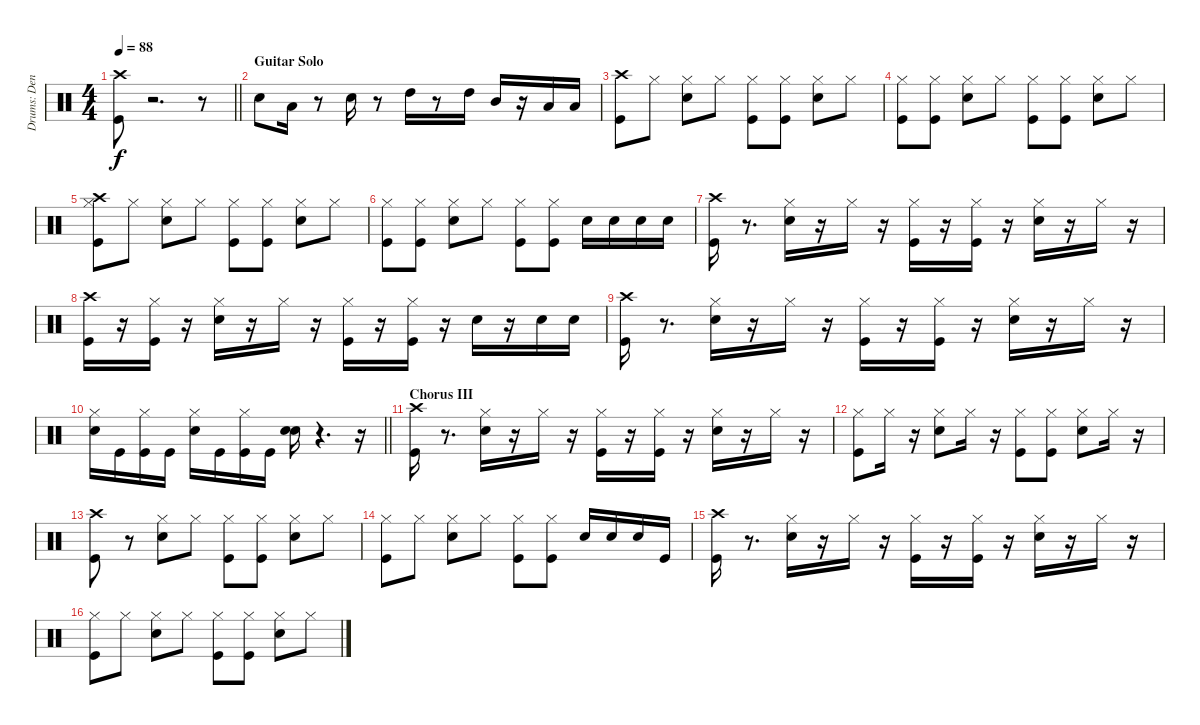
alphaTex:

\track ("Drums: Denny Carmassi" "Drums: Den") {instrument percussion}
\staff {score}
\articulation defaults
\ts (4 4)
\tempo 88
\clef neutral
\barLineRight lightlight
\ks c
("Crash high (hit)" "Kick (hit)").8{dy f} r.2{d} r.8 |
\section ("" "Guitar Solo")
"Electric Snare (hit)".8 "Low Tom (hit)".16 r.8 "Electric Snare (hit)".16 r.8 "High Tom (hit)".16 r.8 "High Tom (hit)".16 "Mid Tom (hit)".16 r.16 "Low Tom (hit)".16 "Low Tom (hit)".16 |
("Kick (hit)" "Crash high (hit)").8 "Hi-Hat (closed)".8 ("Electric Snare (hit)" "Hi-Hat (closed)").8 "Hi-Hat (closed)".8 ("Kick (hit)" "Hi-Hat (closed)").8 ("Kick (hit)" "Hi-Hat (closed)").8 ("Electric Snare (hit)" "Hi-Hat (closed)").8 "Hi-Hat (closed)".8 |
("Kick (hit)" "Hi-Hat (closed)").8 ("Kick (hit)" "Hi-Hat (closed)").8 ("Electric Snare (hit)" "Hi-Hat (closed)").8 "Hi-Hat (closed)".8 ("Kick (hit)" "Hi-Hat (closed)").8 ("Kick (hit)" "Hi-Hat (closed)").8 ("Electric Snare (hit)" "Hi-Hat (closed)").8 "Hi-Hat (closed)".8 |
("Hi-Hat (closed)" "Crash high (hit)" "Kick (hit)").8 "Hi-Hat (closed)".8 ("Hi-Hat (closed)" "Electric Snare (hit)").8 "Hi-Hat (closed)".8 ("Hi-Hat (closed)" "Kick (hit)").8 ("Hi-Hat (closed)" "Kick (hit)").8 ("Hi-Hat (closed)" "Electric Snare (hit)").8 "Hi-Hat (closed)".8 |
("Hi-Hat (closed)" "Kick (hit)").8 ("Hi-Hat (closed)" "Kick (hit)").8 ("Hi-Hat (closed)" "Electric Snare (hit)").8 "Hi-Hat (closed)".8 ("Hi-Hat (closed)" "Kick (hit)").8 ("Hi-Hat (closed)" "Kick (hit)").8 "Electric Snare (hit)".16 "Electric Snare (hit)".16 "Electric Snare (hit)".16 "Electric Snare (hit)".16 |
("Crash high (hit)" "Kick (hit)").16 r.8{d} ("Hi-Hat (closed)" "Electric Snare (hit)").16 r.16 "Hi-Hat (closed)".16 r.16 ("Hi-Hat (closed)" "Kick (hit)").16 r.16 ("Hi-Hat (closed)" "Kick (hit)").16 r.16 ("Hi-Hat (closed)" "Electric Snare (hit)").16 r.16 "Hi-Hat (closed)".16 r.16 |
("Crash high (hit)" "Kick (hit)").16 r.16 ("Hi-Hat (closed)" "Kick (hit)").16 r.16 ("Hi-Hat (closed)" "Electric Snare (hit)").16 r.16 "Hi-Hat (closed)".16 r.16 ("Hi-Hat (closed)" "Kick (hit)").16 r.16 ("Hi-Hat (closed)" "Kick (hit)").16 r.16 "Electric Snare (hit)".16 r.16 "Electric Snare (hit)".16 "Electric Snare (hit)".16 |
("Kick (hit)" "Crash high (hit)").16 r.8{d} ("Electric Snare (hit)" "Hi-Hat (closed)").16 r.16 "Hi-Hat (closed)".16 r.16 ("Kick (hit)" "Hi-Hat (closed)").16 r.16 ("Kick (hit)" "Hi-Hat (closed)").16 r.16 ("Electric Snare (hit)" "Hi-Hat (closed)").16 r.16 "Hi-Hat (closed)".16 r.16 |
\barLineRight lightlight
("Hi-Hat (closed)" "Electric Snare (hit)").16 "Kick (hit)".16 ("Hi-Hat (closed)" "Kick (hit)").16 "Kick (hit)".16 ("Hi-Hat (closed)" "Electric Snare (hit)").16 "Kick (hit)".16 ("Hi-Hat (closed)" "Kick (hit)").16 "Kick (hit)".16 ("Snare (hit) 2" "Electric Snare (hit)").16 r.4{d} r.16 |
\section ("" "Chorus III")
("Kick (hit)" "Crash high (hit)").16 r.8{d} ("Electric Snare (hit)" "Hi-Hat (closed)").16 r.16 "Hi-Hat (closed)".16 r.16 ("Kick (hit)" "Hi-Hat (closed)").16 r.16 ("Kick (hit)" "Hi-Hat (closed)").16 r.16 ("Electric Snare (hit)" "Hi-Hat (closed)").16 r.16 "Hi-Hat (closed)".16 r.16 |
("Hi-Hat (closed)" "Kick (hit)").8 "Hi-Hat (closed)".16 r.16 ("Hi-Hat (closed)" "Electric Snare (hit)").8 "Hi-Hat (closed)".16 r.16 ("Hi-Hat (closed)" "Kick (hit)").8 ("Hi-Hat (closed)" "Kick (hit)").8 ("Hi-Hat (closed)" "Electric Snare (hit)").8 "Hi-Hat (closed)".16 r.16 |
("Crash high (hit)" "Kick (hit)").8 r.8 ("Hi-Hat (closed)" "Electric Snare (hit)").8 "Hi-Hat (closed)".8 ("Hi-Hat (closed)" "Kick (hit)").8 ("Hi-Hat (closed)" "Kick (hit)").8 ("Hi-Hat (closed)" "Electric Snare (hit)").8 "Hi-Hat (closed)".8 |
("Hi-Hat (closed)" "Kick (hit)").8 "Hi-Hat (closed)".8 ("Hi-Hat (closed)" "Electric Snare (hit)").8 "Hi-Hat (closed)".8 ("Hi-Hat (closed)" "Kick (hit)").8 ("Hi-Hat (closed)" "Kick (hit)").8 "Electric Snare (hit)".16 "Electric Snare (hit)".16 "Electric Snare (hit)".16 "Kick (hit)".16 |
("Crash high (hit)" "Kick (hit)").16 r.8{d} ("Hi-Hat (closed)" "Electric Snare (hit)").16 r.16 "Hi-Hat (closed)".16 r.16 ("Hi-Hat (closed)" "Kick (hit)").16 r.16 ("Hi-Hat (closed)" "Kick (hit)").16 r.16 ("Hi-Hat (closed)" "Electric Snare (hit)").16 r.16 "Hi-Hat (closed)".16 r.16 |
("Hi-Hat (closed)" "Kick (hit)").8 "Hi-Hat (closed)".8 ("Hi-Hat (closed)" "Electric Snare (hit)").8 "Hi-Hat (closed)".8 ("Hi-Hat (closed)" "Kick (hit)").8 ("Hi-Hat (closed)" "Kick (hit)").8 ("Hi-Hat (closed)" "Electric Snare (hit)").8 "Hi-Hat (closed)".8
